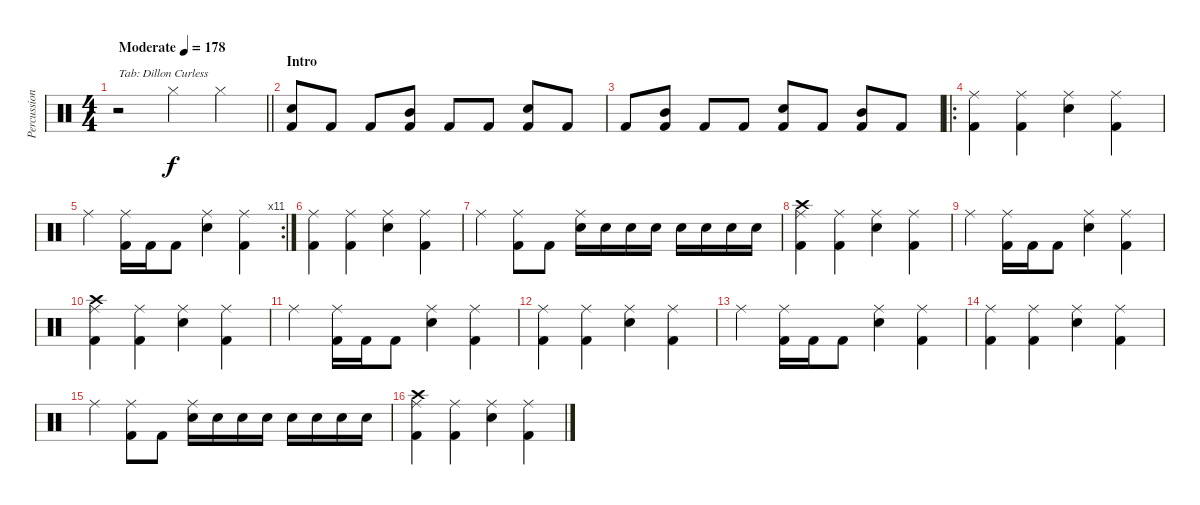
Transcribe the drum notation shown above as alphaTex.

\track ("Percussion" "Percussion") {instrument percussion}
\staff {score}
\articulation defaults
\ts (4 4)
\tempo (178 "Moderate")
\clef neutral
\barLineRight lightlight
\ks c
r.2{txt "Tab: Dillon Curless" dy f} "Hi-Hat (closed)".4 "Hi-Hat (closed)".4 |
\section ("" "Intro")
("Kick (hit) 2" "Snare (hit) 2").8 "Kick (hit) 2".8 "Kick (hit) 2".8 ("Mid Tom (hit)" "Kick (hit) 2").8 "Kick (hit) 2".8 "Kick (hit) 2".8 ("Kick (hit) 2" "Snare (hit) 2").8 "Kick (hit) 2".8 |
"Kick (hit) 2".8 ("Mid Tom (hit)" "Kick (hit) 2").8 "Kick (hit) 2".8 "Kick (hit) 2".8 ("Snare (hit) 2" "Kick (hit) 2").8 "Kick (hit) 2".8 ("Mid Tom (hit)" "Kick (hit) 2").8 "Kick (hit) 2".8 |
\ro
("Kick (hit) 2" "Ride (middle)").4 ("Kick (hit) 2" "Ride (middle)").4 ("Snare (hit) 2" "Ride (middle)").4 ("Kick (hit) 2" "Ride (middle)").4 |
\rc 11 "Ride (middle)".4
("Kick (hit) 2" "Ride (middle)").16 "Kick (hit) 2".16 "Kick (hit) 2".8 ("Snare (hit) 2" "Ride (middle)").4 ("Kick (hit) 2" "Ride (middle)").4 |
("Kick (hit) 2" "Ride (middle)").4 ("Kick (hit) 2" "Ride (middle)").4 ("Snare (hit) 2" "Ride (middle)").4 ("Kick (hit) 2" "Ride (middle)").4 |
"Ride (middle)".4 ("Kick (hit) 2" "Ride (middle)").8 "Kick (hit) 2".8 ("Snare (hit) 2" "Ride (middle)").16 "Snare (hit) 2".16 "Snare (hit) 2".16 "Snare (hit) 2".16 "Snare (hit) 2".16 "Snare (hit) 2".16 "Snare (hit) 2".16 "Snare (hit) 2".16 |
("Crash high (hit)" "Kick (hit) 2" "Ride (middle)").4 ("Kick (hit) 2" "Ride (middle)").4 ("Snare (hit) 2" "Ride (middle)").4 ("Kick (hit) 2" "Ride (middle)").4 |
"Ride (middle)".4 ("Kick (hit) 2" "Ride (middle)").16 "Kick (hit) 2".16 "Kick (hit) 2".8 ("Snare (hit) 2" "Ride (middle)").4 ("Kick (hit) 2" "Ride (middle)").4 |
("Crash high (hit)" "Kick (hit) 2" "Ride (middle)").4 ("Kick (hit) 2" "Ride (middle)").4 ("Snare (hit) 2" "Ride (middle)").4 ("Kick (hit) 2" "Ride (middle)").4 |
"Ride (middle)".4 ("Kick (hit) 2" "Ride (middle)").16 "Kick (hit) 2".16 "Kick (hit) 2".8 ("Snare (hit) 2" "Ride (middle)").4 ("Kick (hit) 2" "Ride (middle)").4 |
("Kick (hit) 2" "Ride (middle)").4 ("Kick (hit) 2" "Ride (middle)").4 ("Snare (hit) 2" "Ride (middle)").4 ("Kick (hit) 2" "Ride (middle)").4 |
"Ride (middle)".4 ("Kick (hit) 2" "Ride (middle)").16 "Kick (hit) 2".16 "Kick (hit) 2".8 ("Snare (hit) 2" "Ride (middle)").4 ("Kick (hit) 2" "Ride (middle)").4 |
("Kick (hit) 2" "Ride (middle)").4 ("Kick (hit) 2" "Ride (middle)").4 ("Snare (hit) 2" "Ride (middle)").4 ("Kick (hit) 2" "Ride (middle)").4 |
"Ride (middle)".4 ("Kick (hit) 2" "Ride (middle)").8 "Kick (hit) 2".8 ("Snare (hit) 2" "Ride (middle)").16 "Snare (hit) 2".16 "Snare (hit) 2".16 "Snare (hit) 2".16 "Snare (hit) 2".16 "Snare (hit) 2".16 "Snare (hit) 2".16 "Snare (hit) 2".16 |
("Crash high (hit)" "Kick (hit) 2" "Ride (middle)").4 ("Kick (hit) 2" "Ride (middle)").4 ("Snare (hit) 2" "Ride (middle)").4 ("Kick (hit) 2" "Ride (middle)").4
